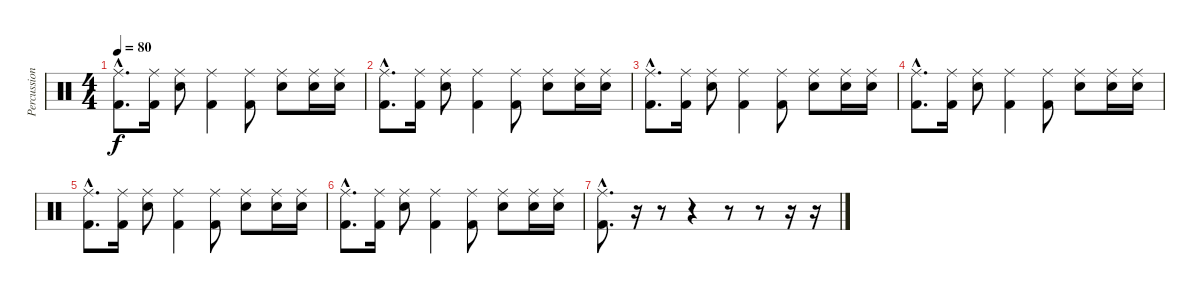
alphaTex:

\track ("Percussion" "Percussion") {instrument percussion}
\staff {score}
\articulation defaults
\ts (4 4)
\tempo 80
\clef neutral
\ks c
("Ride (middle)"{hac} "Kick (hit) 2"{hac}).8{d dy f} ("Ride (middle)" "Kick (hit) 2").16 ("Ride (middle)" "Electric Snare (hit)").8 ("Ride (middle)" "Kick (hit) 2").4 ("Ride (middle)" "Kick (hit) 2").8 ("Ride (middle)" "Electric Snare (hit)").8 ("Ride (middle)" "Electric Snare (hit)").16 ("Ride (middle)" "Electric Snare (hit)").16 |
("Ride (middle)"{hac} "Kick (hit) 2"{hac}).8{d} ("Ride (middle)" "Kick (hit) 2").16 ("Ride (middle)" "Electric Snare (hit)").8 ("Ride (middle)" "Kick (hit) 2").4 ("Ride (middle)" "Kick (hit) 2").8 ("Ride (middle)" "Electric Snare (hit)").8 ("Ride (middle)" "Electric Snare (hit)").16 ("Ride (middle)" "Electric Snare (hit)").16 |
("Ride (middle)"{hac} "Kick (hit) 2"{hac}).8{d} ("Ride (middle)" "Kick (hit) 2").16 ("Ride (middle)" "Electric Snare (hit)").8 ("Ride (middle)" "Kick (hit) 2").4 ("Ride (middle)" "Kick (hit) 2").8 ("Ride (middle)" "Electric Snare (hit)").8 ("Ride (middle)" "Electric Snare (hit)").16 ("Ride (middle)" "Electric Snare (hit)").16 |
("Ride (middle)"{hac} "Kick (hit) 2"{hac}).8{d} ("Ride (middle)" "Kick (hit) 2").16 ("Ride (middle)" "Electric Snare (hit)").8 ("Ride (middle)" "Kick (hit) 2").4 ("Ride (middle)" "Kick (hit) 2").8 ("Ride (middle)" "Electric Snare (hit)").8 ("Ride (middle)" "Electric Snare (hit)").16 ("Ride (middle)" "Electric Snare (hit)").16 |
("Ride (middle)"{hac} "Kick (hit) 2"{hac}).8{d} ("Ride (middle)" "Kick (hit) 2").16 ("Ride (middle)" "Electric Snare (hit)").8 ("Ride (middle)" "Kick (hit) 2").4 ("Ride (middle)" "Kick (hit) 2").8 ("Ride (middle)" "Electric Snare (hit)").8 ("Ride (middle)" "Electric Snare (hit)").16 ("Ride (middle)" "Electric Snare (hit)").16 |
("Ride (middle)"{hac} "Kick (hit) 2"{hac}).8{d} ("Ride (middle)" "Kick (hit) 2").16 ("Ride (middle)" "Electric Snare (hit)").8 ("Ride (middle)" "Kick (hit) 2").4 ("Ride (middle)" "Kick (hit) 2").8 ("Ride (middle)" "Electric Snare (hit)").8 ("Ride (middle)" "Electric Snare (hit)").16 ("Ride (middle)" "Electric Snare (hit)").16 |
("Ride (middle)"{hac} "Kick (hit) 2"{hac}).8{d} r.16 r.8 r.4 r.8 r.8 r.16 r.16
